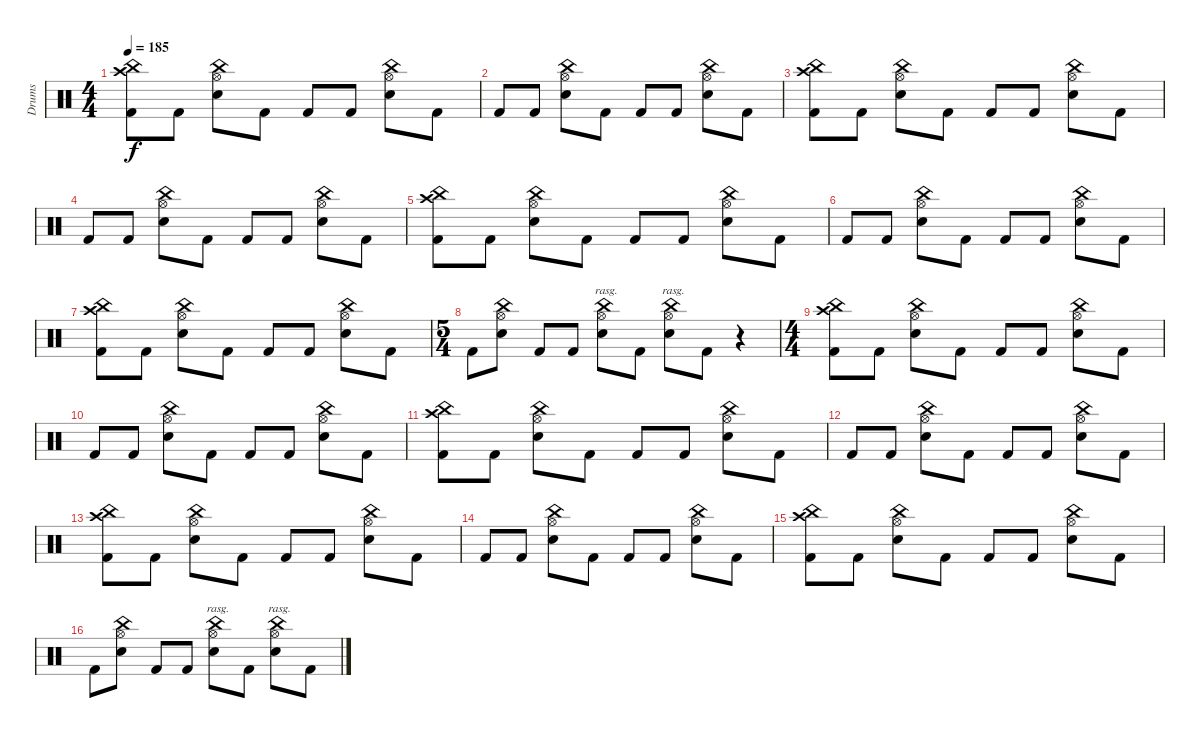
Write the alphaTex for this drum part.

\track ("Drums" "Drums") {instrument percussion}
\staff {score}
\articulation defaults
\ts (4 4)
\tempo 185
\clef neutral
\ks c
("Crash high (hit)" "China (hit)" "Kick (hit) 2").8{dy f} "Kick (hit) 2".8 ("China (hit)" "Hi-Hat (open)" "Snare (hit) 2").8 "Kick (hit) 2".8 "Kick (hit) 2".8 "Kick (hit) 2".8 ("China (hit)" "Hi-Hat (open)" "Snare (hit) 2").8 "Kick (hit) 2".8 |
"Kick (hit) 2".8 "Kick (hit) 2".8 ("China (hit)" "Hi-Hat (open)" "Snare (hit) 2").8 "Kick (hit) 2".8 "Kick (hit) 2".8 "Kick (hit) 2".8 ("China (hit)" "Hi-Hat (open)" "Snare (hit) 2").8 "Kick (hit) 2".8 |
("Crash high (hit)" "China (hit)" "Kick (hit) 2").8 "Kick (hit) 2".8 ("China (hit)" "Hi-Hat (open)" "Snare (hit) 2").8 "Kick (hit) 2".8 "Kick (hit) 2".8 "Kick (hit) 2".8 ("China (hit)" "Hi-Hat (open)" "Snare (hit) 2").8 "Kick (hit) 2".8 |
"Kick (hit) 2".8 "Kick (hit) 2".8 ("China (hit)" "Hi-Hat (open)" "Snare (hit) 2").8 "Kick (hit) 2".8 "Kick (hit) 2".8 "Kick (hit) 2".8 ("China (hit)" "Hi-Hat (open)" "Snare (hit) 2").8 "Kick (hit) 2".8 |
("Crash high (hit)" "China (hit)" "Kick (hit) 2").8 "Kick (hit) 2".8 ("China (hit)" "Hi-Hat (open)" "Snare (hit) 2").8 "Kick (hit) 2".8 "Kick (hit) 2".8 "Kick (hit) 2".8 ("China (hit)" "Hi-Hat (open)" "Snare (hit) 2").8 "Kick (hit) 2".8 |
"Kick (hit) 2".8 "Kick (hit) 2".8 ("China (hit)" "Hi-Hat (open)" "Snare (hit) 2").8 "Kick (hit) 2".8 "Kick (hit) 2".8 "Kick (hit) 2".8 ("China (hit)" "Hi-Hat (open)" "Snare (hit) 2").8 "Kick (hit) 2".8 |
("Crash high (hit)" "China (hit)" "Kick (hit) 2").8 "Kick (hit) 2".8 ("China (hit)" "Hi-Hat (open)" "Snare (hit) 2").8 "Kick (hit) 2".8 "Kick (hit) 2".8 "Kick (hit) 2".8 ("China (hit)" "Hi-Hat (open)" "Snare (hit) 2").8 "Kick (hit) 2".8 |
\ts (5 4)
"Kick (hit) 2".8 ("China (hit)" "Hi-Hat (open)" "Snare (hit) 2").8 "Kick (hit) 2".8 "Kick (hit) 2".8 ("China (hit)" "Hi-Hat (open)" "Snare (hit) 2").8{bd 120 rasg ii} "Kick (hit) 2".8 ("China (hit)" "Hi-Hat (open)" "Snare (hit) 2").8{bd 120 rasg ii} "Kick (hit) 2".8 r.4 |
\ts (4 4)
("Crash high (hit)" "China (hit)" "Kick (hit) 2").8 "Kick (hit) 2".8 ("China (hit)" "Hi-Hat (open)" "Snare (hit) 2").8 "Kick (hit) 2".8 "Kick (hit) 2".8 "Kick (hit) 2".8 ("China (hit)" "Hi-Hat (open)" "Snare (hit) 2").8 "Kick (hit) 2".8 |
"Kick (hit) 2".8 "Kick (hit) 2".8 ("China (hit)" "Hi-Hat (open)" "Snare (hit) 2").8 "Kick (hit) 2".8 "Kick (hit) 2".8 "Kick (hit) 2".8 ("China (hit)" "Hi-Hat (open)" "Snare (hit) 2").8 "Kick (hit) 2".8 |
("Crash high (hit)" "China (hit)" "Kick (hit) 2").8 "Kick (hit) 2".8 ("China (hit)" "Hi-Hat (open)" "Snare (hit) 2").8 "Kick (hit) 2".8 "Kick (hit) 2".8 "Kick (hit) 2".8 ("China (hit)" "Hi-Hat (open)" "Snare (hit) 2").8 "Kick (hit) 2".8 |
"Kick (hit) 2".8 "Kick (hit) 2".8 ("China (hit)" "Hi-Hat (open)" "Snare (hit) 2").8 "Kick (hit) 2".8 "Kick (hit) 2".8 "Kick (hit) 2".8 ("China (hit)" "Hi-Hat (open)" "Snare (hit) 2").8 "Kick (hit) 2".8 |
("Crash high (hit)" "China (hit)" "Kick (hit) 2").8 "Kick (hit) 2".8 ("China (hit)" "Hi-Hat (open)" "Snare (hit) 2").8 "Kick (hit) 2".8 "Kick (hit) 2".8 "Kick (hit) 2".8 ("China (hit)" "Hi-Hat (open)" "Snare (hit) 2").8 "Kick (hit) 2".8 |
"Kick (hit) 2".8 "Kick (hit) 2".8 ("China (hit)" "Hi-Hat (open)" "Snare (hit) 2").8 "Kick (hit) 2".8 "Kick (hit) 2".8 "Kick (hit) 2".8 ("China (hit)" "Hi-Hat (open)" "Snare (hit) 2").8 "Kick (hit) 2".8 |
("Crash high (hit)" "China (hit)" "Kick (hit) 2").8 "Kick (hit) 2".8 ("China (hit)" "Hi-Hat (open)" "Snare (hit) 2").8 "Kick (hit) 2".8 "Kick (hit) 2".8 "Kick (hit) 2".8 ("China (hit)" "Hi-Hat (open)" "Snare (hit) 2").8 "Kick (hit) 2".8 |
"Kick (hit) 2".8 ("China (hit)" "Hi-Hat (open)" "Snare (hit) 2").8 "Kick (hit) 2".8 "Kick (hit) 2".8 ("China (hit)" "Hi-Hat (open)" "Snare (hit) 2").8{bd 120 rasg ii} "Kick (hit) 2".8 ("China (hit)" "Hi-Hat (open)" "Snare (hit) 2").8{bd 120 rasg ii} "Kick (hit) 2".8
